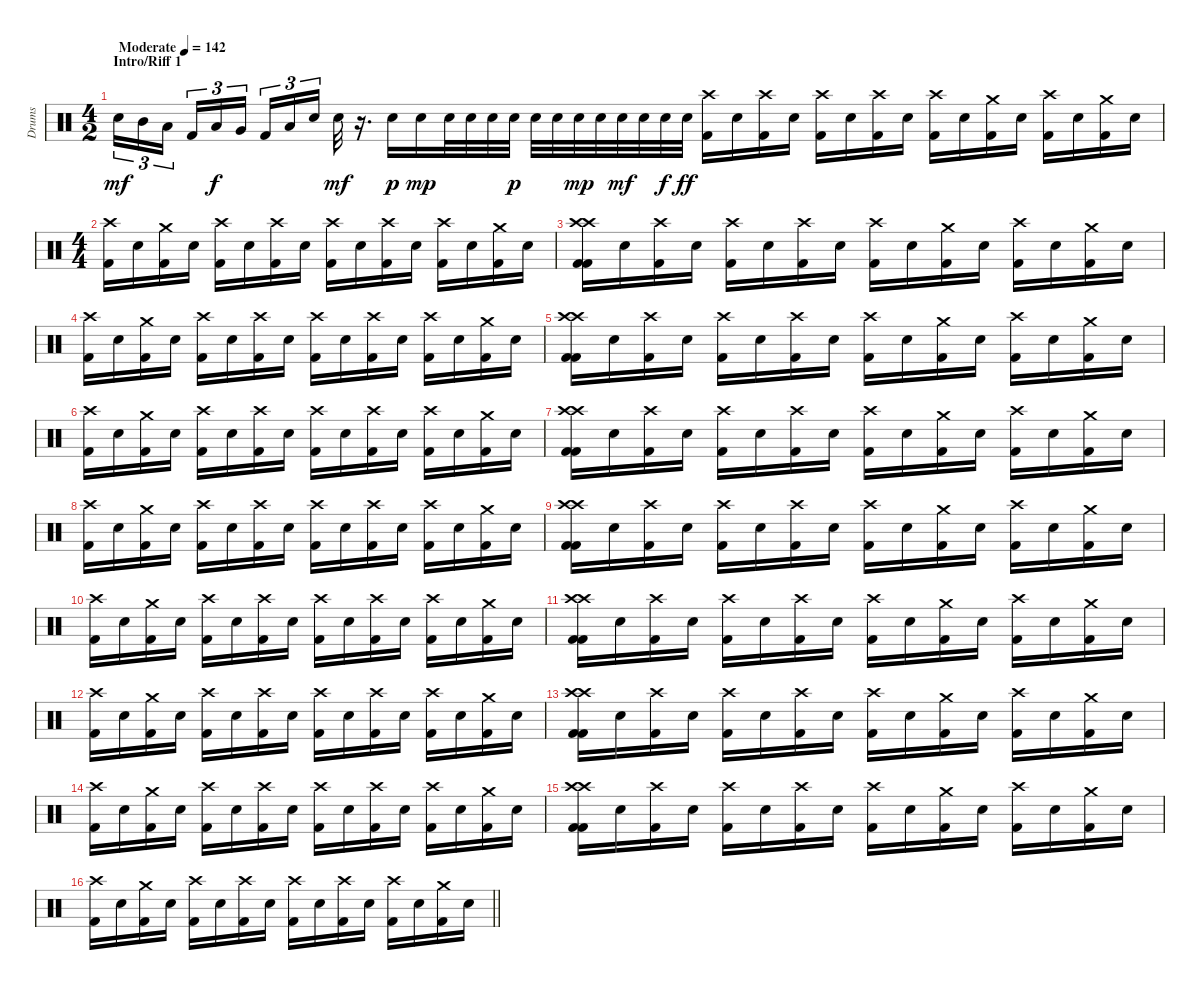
\track ("Drums" "Drums") {instrument percussion}
\staff {score}
\articulation defaults
\ts (4 2)
\section ("" "Intro/Riff 1")
\tempo (142 "Moderate")
\clef neutral
\ks c "Snare (hit) 2".16{tu (3 2) dy mf} "Mid Tom (hit)".16{tu (3 2)} "Low Tom (hit)".16{tu (3 2) beam splitsecondary} "Kick (hit) 2".16{tu (3 2)} "Low Tom (hit)".16{tu (3 2) dy f} "Very Low Tom (hit)".16{tu (3 2) beam splitsecondary} "Kick (hit) 2".16{tu (3 2)} "Low Floor Tom (hit)".16{tu (3 2)} "Snare (hit) 2".16{tu (3 2) beam splitsecondary} "Snare (hit) 2".32{dy mf}
r.16{d} "Snare (hit) 2".16{dy p} "Snare (hit) 2".16{dy mp} "Snare (hit) 2".32 "Snare (hit) 2".32 "Snare (hit) 2".32 "Snare (hit) 2".32{dy p} "Snare (hit) 2".32 "Snare (hit) 2".32 "Snare (hit) 2".32{dy mp} "Snare (hit) 2".32 "Snare (hit) 2".32{dy mf} "Snare (hit) 2".32 "Snare (hit) 2".32{dy f} "Snare (hit) 2".32{dy ff} ("Crash high (hit)" "Kick (hit) 2").16 "Snare (hit) 2".16 ("Crash high (hit)" "Kick (hit) 2").16 "Snare (hit) 2".16 ("Crash high (hit)" "Kick (hit) 2").16 "Snare (hit) 2".16 ("Crash high (hit)" "Kick (hit) 2").16 "Snare (hit) 2".16 ("Crash high (hit)" "Kick (hit) 2").16 "Snare (hit) 2".16 ("Crash medium (hit)" "Kick (hit) 2").16 "Snare (hit) 2".16 ("Crash high (hit)" "Kick (hit) 2").16 "Snare (hit) 2".16 ("Crash medium (hit)" "Kick (hit) 2").16 "Snare (hit) 2".16 |
\ts (4 4)
("Crash high (hit)" "Kick (hit) 2").16 "Snare (hit) 2".16 ("Crash medium (hit)" "Kick (hit) 2").16 "Snare (hit) 2".16 ("Crash high (hit)" "Kick (hit) 2").16 "Snare (hit) 2".16 ("Crash high (hit)" "Kick (hit) 2").16 "Snare (hit) 2".16 ("Crash high (hit)" "Kick (hit) 2").16 "Snare (hit) 2".16 ("Crash high (hit)" "Kick (hit) 2").16 "Snare (hit) 2".16 ("Crash high (hit)" "Kick (hit) 2").16 "Snare (hit) 2".16 ("Crash medium (hit)" "Kick (hit) 2").16 "Snare (hit) 2".16 |
("Crash high (hit)" "Kick (hit) 2" "Crash high (hit)" "Kick (hit) 2").16 "Snare (hit) 2".16 ("Crash high (hit)" "Kick (hit) 2").16 "Snare (hit) 2".16 ("Crash high (hit)" "Kick (hit) 2").16 "Snare (hit) 2".16 ("Crash high (hit)" "Kick (hit) 2").16 "Snare (hit) 2".16 ("Crash high (hit)" "Kick (hit) 2").16 "Snare (hit) 2".16 ("Crash medium (hit)" "Kick (hit) 2").16 "Snare (hit) 2".16 ("Crash high (hit)" "Kick (hit) 2").16 "Snare (hit) 2".16 ("Crash medium (hit)" "Kick (hit) 2").16 "Snare (hit) 2".16 |
("Crash high (hit)" "Kick (hit) 2").16 "Snare (hit) 2".16 ("Crash medium (hit)" "Kick (hit) 2").16 "Snare (hit) 2".16 ("Crash high (hit)" "Kick (hit) 2").16 "Snare (hit) 2".16 ("Crash high (hit)" "Kick (hit) 2").16 "Snare (hit) 2".16 ("Crash high (hit)" "Kick (hit) 2").16 "Snare (hit) 2".16 ("Crash high (hit)" "Kick (hit) 2").16 "Snare (hit) 2".16 ("Crash high (hit)" "Kick (hit) 2").16 "Snare (hit) 2".16 ("Crash medium (hit)" "Kick (hit) 2").16 "Snare (hit) 2".16 |
("Crash high (hit)" "Kick (hit) 2" "Crash high (hit)" "Kick (hit) 2").16 "Snare (hit) 2".16 ("Crash high (hit)" "Kick (hit) 2").16 "Snare (hit) 2".16 ("Crash high (hit)" "Kick (hit) 2").16 "Snare (hit) 2".16 ("Crash high (hit)" "Kick (hit) 2").16 "Snare (hit) 2".16 ("Crash high (hit)" "Kick (hit) 2").16 "Snare (hit) 2".16 ("Crash medium (hit)" "Kick (hit) 2").16 "Snare (hit) 2".16 ("Crash high (hit)" "Kick (hit) 2").16 "Snare (hit) 2".16 ("Crash medium (hit)" "Kick (hit) 2").16 "Snare (hit) 2".16 |
("Crash high (hit)" "Kick (hit) 2").16 "Snare (hit) 2".16 ("Crash medium (hit)" "Kick (hit) 2").16 "Snare (hit) 2".16 ("Crash high (hit)" "Kick (hit) 2").16 "Snare (hit) 2".16 ("Crash high (hit)" "Kick (hit) 2").16 "Snare (hit) 2".16 ("Crash high (hit)" "Kick (hit) 2").16 "Snare (hit) 2".16 ("Crash high (hit)" "Kick (hit) 2").16 "Snare (hit) 2".16 ("Crash high (hit)" "Kick (hit) 2").16 "Snare (hit) 2".16 ("Crash medium (hit)" "Kick (hit) 2").16 "Snare (hit) 2".16 |
("Crash high (hit)" "Kick (hit) 2" "Crash high (hit)" "Kick (hit) 2").16 "Snare (hit) 2".16 ("Crash high (hit)" "Kick (hit) 2").16 "Snare (hit) 2".16 ("Crash high (hit)" "Kick (hit) 2").16 "Snare (hit) 2".16 ("Crash high (hit)" "Kick (hit) 2").16 "Snare (hit) 2".16 ("Crash high (hit)" "Kick (hit) 2").16 "Snare (hit) 2".16 ("Crash medium (hit)" "Kick (hit) 2").16 "Snare (hit) 2".16 ("Crash high (hit)" "Kick (hit) 2").16 "Snare (hit) 2".16 ("Crash medium (hit)" "Kick (hit) 2").16 "Snare (hit) 2".16 |
("Crash high (hit)" "Kick (hit) 2").16 "Snare (hit) 2".16 ("Crash medium (hit)" "Kick (hit) 2").16 "Snare (hit) 2".16 ("Crash high (hit)" "Kick (hit) 2").16 "Snare (hit) 2".16 ("Crash high (hit)" "Kick (hit) 2").16 "Snare (hit) 2".16 ("Crash high (hit)" "Kick (hit) 2").16 "Snare (hit) 2".16 ("Crash high (hit)" "Kick (hit) 2").16 "Snare (hit) 2".16 ("Crash high (hit)" "Kick (hit) 2").16 "Snare (hit) 2".16 ("Crash medium (hit)" "Kick (hit) 2").16 "Snare (hit) 2".16 |
("Crash high (hit)" "Kick (hit) 2" "Crash high (hit)" "Kick (hit) 2").16 "Snare (hit) 2".16 ("Crash high (hit)" "Kick (hit) 2").16 "Snare (hit) 2".16 ("Crash high (hit)" "Kick (hit) 2").16 "Snare (hit) 2".16 ("Crash high (hit)" "Kick (hit) 2").16 "Snare (hit) 2".16 ("Crash high (hit)" "Kick (hit) 2").16 "Snare (hit) 2".16 ("Crash medium (hit)" "Kick (hit) 2").16 "Snare (hit) 2".16 ("Crash high (hit)" "Kick (hit) 2").16 "Snare (hit) 2".16 ("Crash medium (hit)" "Kick (hit) 2").16 "Snare (hit) 2".16 |
("Crash high (hit)" "Kick (hit) 2").16 "Snare (hit) 2".16 ("Crash medium (hit)" "Kick (hit) 2").16 "Snare (hit) 2".16 ("Crash high (hit)" "Kick (hit) 2").16 "Snare (hit) 2".16 ("Crash high (hit)" "Kick (hit) 2").16 "Snare (hit) 2".16 ("Crash high (hit)" "Kick (hit) 2").16 "Snare (hit) 2".16 ("Crash high (hit)" "Kick (hit) 2").16 "Snare (hit) 2".16 ("Crash high (hit)" "Kick (hit) 2").16 "Snare (hit) 2".16 ("Crash medium (hit)" "Kick (hit) 2").16 "Snare (hit) 2".16 |
("Crash high (hit)" "Kick (hit) 2" "Crash high (hit)" "Kick (hit) 2").16 "Snare (hit) 2".16 ("Crash high (hit)" "Kick (hit) 2").16 "Snare (hit) 2".16 ("Crash high (hit)" "Kick (hit) 2").16 "Snare (hit) 2".16 ("Crash high (hit)" "Kick (hit) 2").16 "Snare (hit) 2".16 ("Crash high (hit)" "Kick (hit) 2").16 "Snare (hit) 2".16 ("Crash medium (hit)" "Kick (hit) 2").16 "Snare (hit) 2".16 ("Crash high (hit)" "Kick (hit) 2").16 "Snare (hit) 2".16 ("Crash medium (hit)" "Kick (hit) 2").16 "Snare (hit) 2".16 |
("Crash high (hit)" "Kick (hit) 2").16 "Snare (hit) 2".16 ("Crash medium (hit)" "Kick (hit) 2").16 "Snare (hit) 2".16 ("Crash high (hit)" "Kick (hit) 2").16 "Snare (hit) 2".16 ("Crash high (hit)" "Kick (hit) 2").16 "Snare (hit) 2".16 ("Crash high (hit)" "Kick (hit) 2").16 "Snare (hit) 2".16 ("Crash high (hit)" "Kick (hit) 2").16 "Snare (hit) 2".16 ("Crash high (hit)" "Kick (hit) 2").16 "Snare (hit) 2".16 ("Crash medium (hit)" "Kick (hit) 2").16 "Snare (hit) 2".16 |
("Crash high (hit)" "Kick (hit) 2" "Crash high (hit)" "Kick (hit) 2").16 "Snare (hit) 2".16 ("Crash high (hit)" "Kick (hit) 2").16 "Snare (hit) 2".16 ("Crash high (hit)" "Kick (hit) 2").16 "Snare (hit) 2".16 ("Crash high (hit)" "Kick (hit) 2").16 "Snare (hit) 2".16 ("Crash high (hit)" "Kick (hit) 2").16 "Snare (hit) 2".16 ("Crash medium (hit)" "Kick (hit) 2").16 "Snare (hit) 2".16 ("Crash high (hit)" "Kick (hit) 2").16 "Snare (hit) 2".16 ("Crash medium (hit)" "Kick (hit) 2").16 "Snare (hit) 2".16 |
("Crash high (hit)" "Kick (hit) 2").16 "Snare (hit) 2".16 ("Crash medium (hit)" "Kick (hit) 2").16 "Snare (hit) 2".16 ("Crash high (hit)" "Kick (hit) 2").16 "Snare (hit) 2".16 ("Crash high (hit)" "Kick (hit) 2").16 "Snare (hit) 2".16 ("Crash high (hit)" "Kick (hit) 2").16 "Snare (hit) 2".16 ("Crash high (hit)" "Kick (hit) 2").16 "Snare (hit) 2".16 ("Crash high (hit)" "Kick (hit) 2").16 "Snare (hit) 2".16 ("Crash medium (hit)" "Kick (hit) 2").16 "Snare (hit) 2".16 |
("Crash high (hit)" "Kick (hit) 2" "Crash high (hit)" "Kick (hit) 2").16 "Snare (hit) 2".16 ("Crash high (hit)" "Kick (hit) 2").16 "Snare (hit) 2".16 ("Crash high (hit)" "Kick (hit) 2").16 "Snare (hit) 2".16 ("Crash high (hit)" "Kick (hit) 2").16 "Snare (hit) 2".16 ("Crash high (hit)" "Kick (hit) 2").16 "Snare (hit) 2".16 ("Crash medium (hit)" "Kick (hit) 2").16 "Snare (hit) 2".16 ("Crash high (hit)" "Kick (hit) 2").16 "Snare (hit) 2".16 ("Crash medium (hit)" "Kick (hit) 2").16 "Snare (hit) 2".16 |
\barLineRight lightlight
("Crash high (hit)" "Kick (hit) 2").16 "Snare (hit) 2".16 ("Crash medium (hit)" "Kick (hit) 2").16 "Snare (hit) 2".16 ("Crash high (hit)" "Kick (hit) 2").16 "Snare (hit) 2".16 ("Crash high (hit)" "Kick (hit) 2").16 "Snare (hit) 2".16 ("Crash high (hit)" "Kick (hit) 2").16 "Snare (hit) 2".16 ("Crash high (hit)" "Kick (hit) 2").16 "Snare (hit) 2".16 ("Crash high (hit)" "Kick (hit) 2").16 "Snare (hit) 2".16 ("Crash medium (hit)" "Kick (hit) 2").16 "Snare (hit) 2".16
